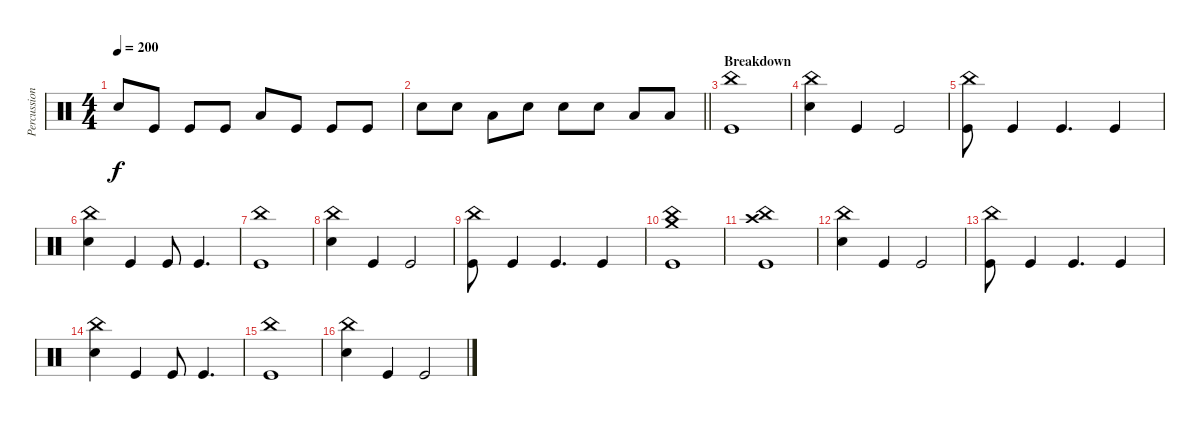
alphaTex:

\track ("Percussion" "Percussion") {instrument percussion}
\staff {score}
\articulation defaults
\ts (4 4)
\tempo 200
\clef neutral
\ks c "Electric Snare (hit)".8{dy f} "Kick (hit)".8 "Kick (hit)".8 "Kick (hit)".8 "Low Tom (hit)".8 "Kick (hit)".8 "Kick (hit)".8 "Kick (hit)".8
|
\barLineRight lightlight "Electric Snare (hit)".8 "Electric Snare (hit)".8 "Low Tom (hit)".8 "Electric Snare (hit)".8 "Electric Snare (hit)".8 "Electric Snare (hit)".8 "Low Tom (hit)".8 "Low Tom (hit)".8
|
\section ("" "Breakdown")
("China (hit)" "Kick (hit)").1 |
("China (hit)" "Electric Snare (hit)").4 "Kick (hit)".4 "Kick (hit)".2 |
("China (hit)" "Kick (hit)").8 "Kick (hit)".4 "Kick (hit)".4{d} "Kick (hit)".4 |
("China (hit)" "Electric Snare (hit)").4 "Kick (hit)".4 "Kick (hit)".8 "Kick (hit)".4{d} |
("China (hit)" "Kick (hit)").1 |
("China (hit)" "Electric Snare (hit)").4 "Kick (hit)".4 "Kick (hit)".2 |
("China (hit)" "Kick (hit)").8 "Kick (hit)".4 "Kick (hit)".4{d} "Kick (hit)".4 |
("China (hit)" "Crash medium (hit)" "Kick (hit)").1 |
("China (hit)" "Crash high (hit)" "Kick (hit)").1 |
("China (hit)" "Electric Snare (hit)").4 "Kick (hit)".4 "Kick (hit)".2 |
("China (hit)" "Kick (hit)").8 "Kick (hit)".4 "Kick (hit)".4{d} "Kick (hit)".4 |
("China (hit)" "Electric Snare (hit)").4 "Kick (hit)".4 "Kick (hit)".8 "Kick (hit)".4{d} |
("China (hit)" "Kick (hit)").1 |
("China (hit)" "Electric Snare (hit)").4 "Kick (hit)".4 "Kick (hit)".2
